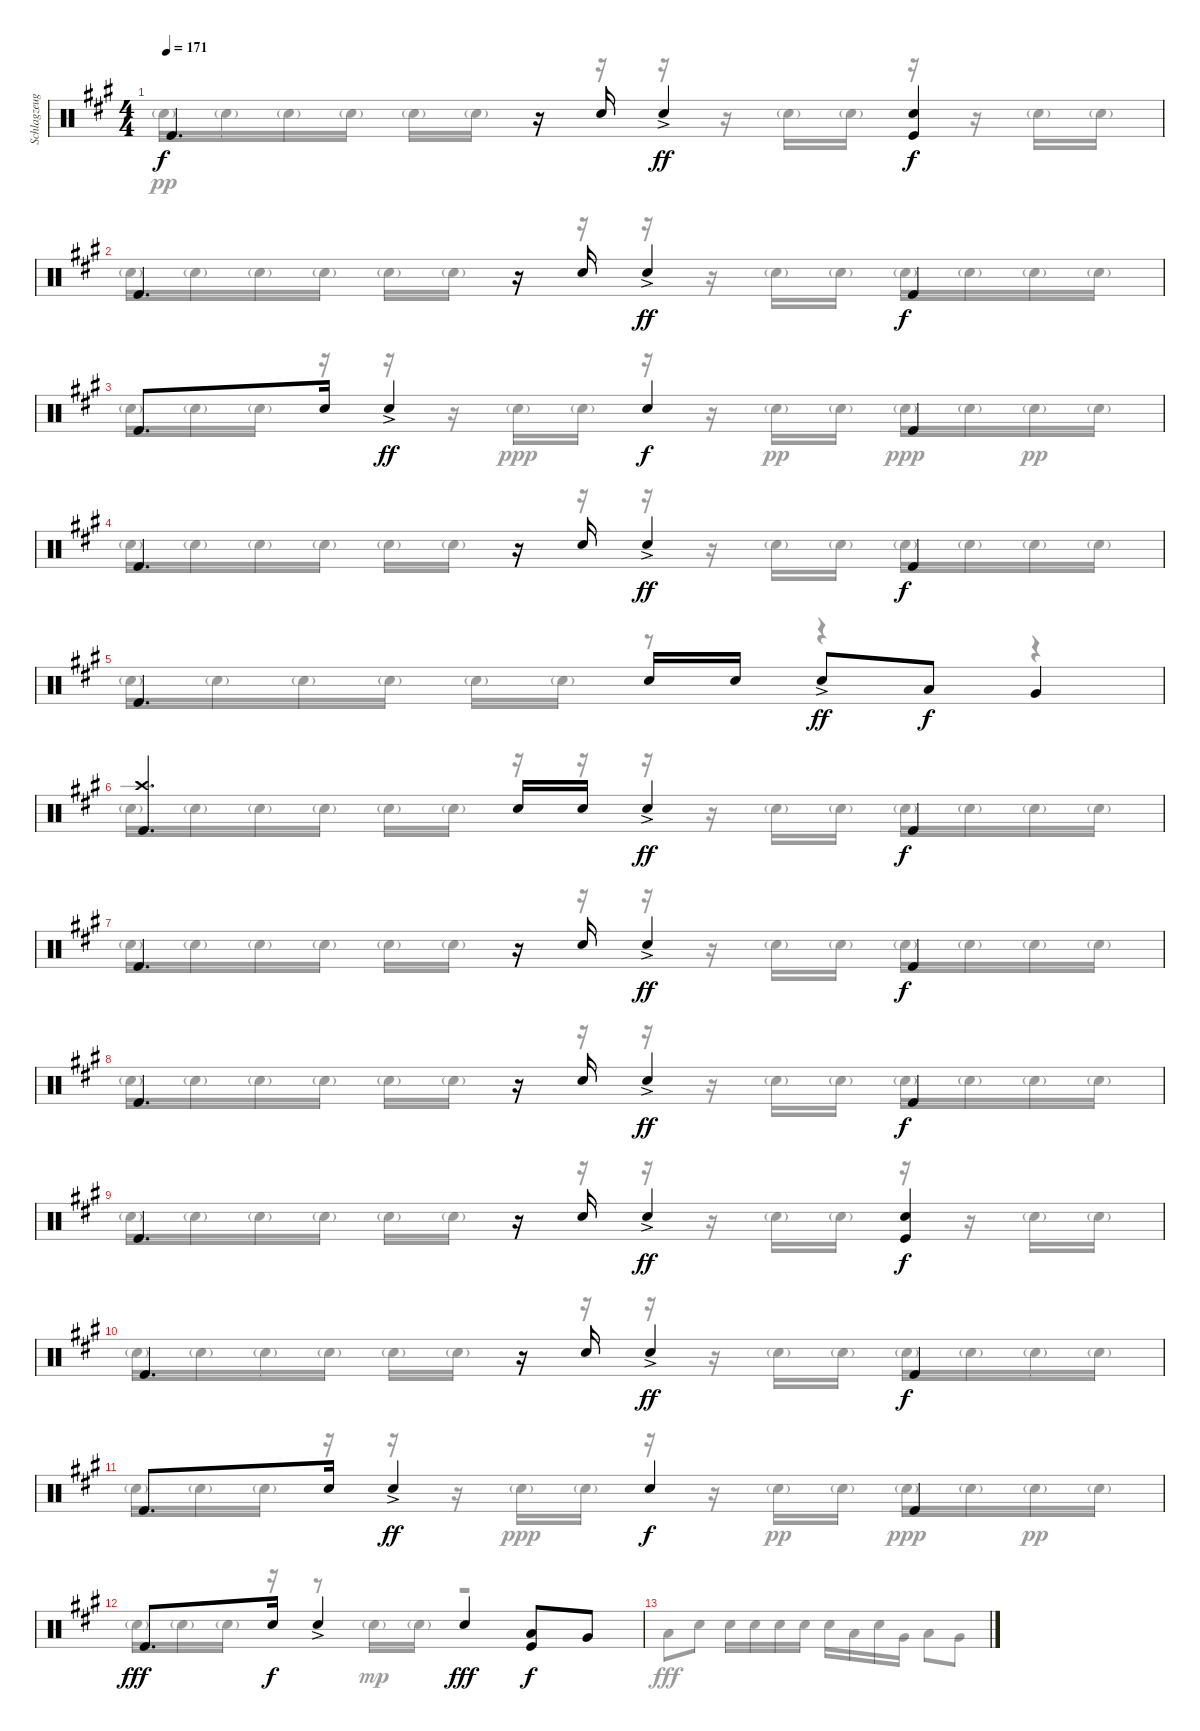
\track ("Schlagzeug" "Schlagzeug") {instrument percussion}
\staff {score}
\articulation defaults
\voice
\ts (4 4)
\tempo 171
\clef neutral
\ks f#minor "Kick (hit)".4{d dy f}
r.16 "Electric Snare (hit)".16 "Electric Snare (hit)"{ac}.4{dy ff} ("Kick (hit)" "Electric Snare (hit)").4{dy f} |
"Kick (hit)".4{d} r.16 "Electric Snare (hit)".16 "Electric Snare (hit)"{ac}.4{dy ff} "Kick (hit)".4{dy f} |
"Kick (hit)".8{d} "Electric Snare (hit)".16 "Electric Snare (hit)"{ac}.4{dy ff} "Electric Snare (hit)".4{dy f} "Kick (hit)".4 |
"Kick (hit)".4{d} r.16 "Electric Snare (hit)".16 "Electric Snare (hit)"{ac}.4{dy ff} "Kick (hit)".4{dy f} |
"Kick (hit)".4{d} "Electric Snare (hit)".16 "Electric Snare (hit)".16 "Electric Snare (hit)"{ac}.8{dy ff} "Low Tom (hit)".8{dy f} "Very Low Tom (hit)".4 |
("Crash high (hit)" "Kick (hit)").4{d} "Electric Snare (hit)".16 "Electric Snare (hit)".16 "Electric Snare (hit)"{ac}.4{dy ff} "Kick (hit)".4{dy f} |
"Kick (hit)".4{d} r.16 "Electric Snare (hit)".16 "Electric Snare (hit)"{ac}.4{dy ff} "Kick (hit)".4{dy f} |
"Kick (hit)".4{d} r.16 "Electric Snare (hit)".16 "Electric Snare (hit)"{ac}.4{dy ff} "Kick (hit)".4{dy f} |
"Kick (hit)".4{d} r.16 "Electric Snare (hit)".16 "Electric Snare (hit)"{ac}.4{dy ff} ("Kick (hit)" "Electric Snare (hit)").4{dy f} |
"Kick (hit)".4{d} r.16 "Electric Snare (hit)".16 "Electric Snare (hit)"{ac}.4{dy ff} "Kick (hit)".4{dy f} |
"Kick (hit)".8{d} "Electric Snare (hit)".16 "Electric Snare (hit)"{ac}.4{dy ff} "Electric Snare (hit)".4{dy f} "Kick (hit)".4 |
"Kick (hit)".8{d dy fff} "Electric Snare (hit)".16{dy f} "Electric Snare (hit)"{ac}.4 "Electric Snare (hit)".4{dy fff} ("Low Tom (hit)" "Kick (hit)").8{dy f} "Very Low Tom (hit)".8 |
\voice
\clef neutral
\ottava regular
\simile none
\ks f#minor "Electric Snare (hit)"{g}.16{dy pp} "Electric Snare (hit)"{g}.16 "Electric Snare (hit)"{g}.16 "Electric Snare (hit)"{g}.16 "Electric Snare (hit)"{g}.16 "Electric Snare (hit)"{g}.16
r.16 r.16 r.16 r.16 "Electric Snare (hit)"{g}.16 "Electric Snare (hit)"{g}.16 r.16 r.16 "Electric Snare (hit)"{g}.16 "Electric Snare (hit)"{g}.16 |
"Electric Snare (hit)"{g}.16 "Electric Snare (hit)"{g}.16 "Electric Snare (hit)"{g}.16 "Electric Snare (hit)"{g}.16 "Electric Snare (hit)"{g}.16 "Electric Snare (hit)"{g}.16 r.16 r.16 r.16 r.16 "Electric Snare (hit)"{g}.16 "Electric Snare (hit)"{g}.16 "Electric Snare (hit)"{g}.16 "Electric Snare (hit)"{g}.16 "Electric Snare (hit)"{g}.16 "Electric Snare (hit)"{g}.16 |
"Electric Snare (hit)"{g}.16 "Electric Snare (hit)"{g}.16 "Electric Snare (hit)"{g}.16 r.16 r.16 r.16 "Electric Snare (hit)"{g}.16{dy ppp} "Electric Snare (hit)"{g}.16 r.16 r.16 "Electric Snare (hit)"{g}.16{dy pp} "Electric Snare (hit)"{g}.16 "Electric Snare (hit)"{g}.16{dy ppp} "Electric Snare (hit)"{g}.16 "Electric Snare (hit)"{g}.16{dy pp} "Electric Snare (hit)"{g}.16 |
"Electric Snare (hit)"{g}.16 "Electric Snare (hit)"{g}.16 "Electric Snare (hit)"{g}.16 "Electric Snare (hit)"{g}.16 "Electric Snare (hit)"{g}.16 "Electric Snare (hit)"{g}.16 r.16 r.16 r.16 r.16 "Electric Snare (hit)"{g}.16 "Electric Snare (hit)"{g}.16 "Electric Snare (hit)"{g}.16 "Electric Snare (hit)"{g}.16 "Electric Snare (hit)"{g}.16 "Electric Snare (hit)"{g}.16 |
"Electric Snare (hit)"{g}.16 "Electric Snare (hit)"{g}.16 "Electric Snare (hit)"{g}.16 "Electric Snare (hit)"{g}.16 "Electric Snare (hit)"{g}.16 "Electric Snare (hit)"{g}.16 r.8 r.4 r.4 |
"Electric Snare (hit)"{g}.16 "Electric Snare (hit)"{g}.16 "Electric Snare (hit)"{g}.16 "Electric Snare (hit)"{g}.16 "Electric Snare (hit)"{g}.16 "Electric Snare (hit)"{g}.16 r.16 r.16 r.16 r.16 "Electric Snare (hit)"{g}.16 "Electric Snare (hit)"{g}.16 "Electric Snare (hit)"{g}.16 "Electric Snare (hit)"{g}.16 "Electric Snare (hit)"{g}.16 "Electric Snare (hit)"{g}.16 |
"Electric Snare (hit)"{g}.16 "Electric Snare (hit)"{g}.16 "Electric Snare (hit)"{g}.16 "Electric Snare (hit)"{g}.16 "Electric Snare (hit)"{g}.16 "Electric Snare (hit)"{g}.16 r.16 r.16 r.16 r.16 "Electric Snare (hit)"{g}.16 "Electric Snare (hit)"{g}.16 "Electric Snare (hit)"{g}.16 "Electric Snare (hit)"{g}.16 "Electric Snare (hit)"{g}.16 "Electric Snare (hit)"{g}.16 |
"Electric Snare (hit)"{g}.16 "Electric Snare (hit)"{g}.16 "Electric Snare (hit)"{g}.16 "Electric Snare (hit)"{g}.16 "Electric Snare (hit)"{g}.16 "Electric Snare (hit)"{g}.16 r.16 r.16 r.16 r.16 "Electric Snare (hit)"{g}.16 "Electric Snare (hit)"{g}.16 "Electric Snare (hit)"{g}.16 "Electric Snare (hit)"{g}.16 "Electric Snare (hit)"{g}.16 "Electric Snare (hit)"{g}.16 |
"Electric Snare (hit)"{g}.16 "Electric Snare (hit)"{g}.16 "Electric Snare (hit)"{g}.16 "Electric Snare (hit)"{g}.16 "Electric Snare (hit)"{g}.16 "Electric Snare (hit)"{g}.16 r.16 r.16 r.16 r.16 "Electric Snare (hit)"{g}.16 "Electric Snare (hit)"{g}.16 r.16 r.16 "Electric Snare (hit)"{g}.16 "Electric Snare (hit)"{g}.16 |
"Electric Snare (hit)"{g}.16 "Electric Snare (hit)"{g}.16 "Electric Snare (hit)"{g}.16 "Electric Snare (hit)"{g}.16 "Electric Snare (hit)"{g}.16 "Electric Snare (hit)"{g}.16 r.16 r.16 r.16 r.16 "Electric Snare (hit)"{g}.16 "Electric Snare (hit)"{g}.16 "Electric Snare (hit)"{g}.16 "Electric Snare (hit)"{g}.16 "Electric Snare (hit)"{g}.16 "Electric Snare (hit)"{g}.16 |
"Electric Snare (hit)"{g}.16 "Electric Snare (hit)"{g}.16 "Electric Snare (hit)"{g}.16 r.16 r.16 r.16 "Electric Snare (hit)"{g}.16{dy ppp} "Electric Snare (hit)"{g}.16 r.16 r.16 "Electric Snare (hit)"{g}.16{dy pp} "Electric Snare (hit)"{g}.16 "Electric Snare (hit)"{g}.16{dy ppp} "Electric Snare (hit)"{g}.16 "Electric Snare (hit)"{g}.16{dy pp} "Electric Snare (hit)"{g}.16 |
"Electric Snare (hit)"{g}.16 "Electric Snare (hit)"{g}.16 "Electric Snare (hit)"{g}.16 r.16 r.8 "Electric Snare (hit)"{g}.16{dy mp} "Electric Snare (hit)"{g}.16 r.2 |
"Low Floor Tom (hit)".8{dy fff} "Electric Snare (hit)".8 "Electric Snare (hit)".16 "Electric Snare (hit)".16 "Electric Snare (hit)".16 "Electric Snare (hit)".16 "Electric Snare (hit)".16 "Low Tom (hit)".16 "Electric Snare (hit)".16 "Very Low Tom (hit)".16 "Low Tom (hit)".8 "Very Low Tom (hit)".8
